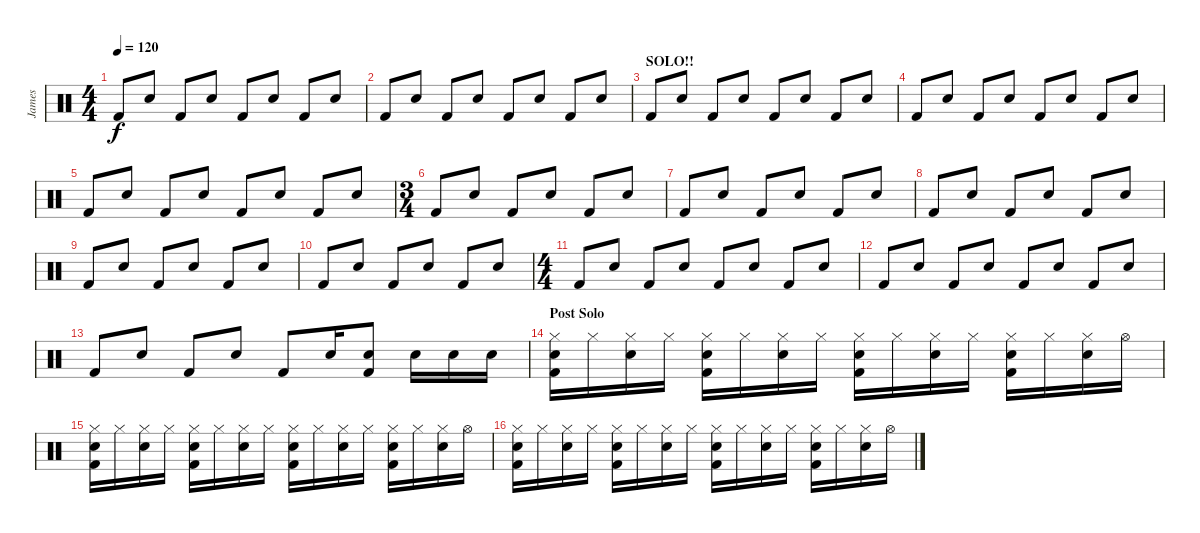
\track ("James" "James") {instrument percussion}
\staff {score}
\articulation defaults
\ts (4 4)
\tempo 120
\clef neutral
\ks c "Kick (hit) 2".8{dy f} "Snare (hit) 2".8 "Kick (hit) 2".8 "Snare (hit) 2".8 "Kick (hit) 2".8 "Snare (hit) 2".8 "Kick (hit) 2".8 "Snare (hit) 2".8
|
"Kick (hit) 2".8 "Snare (hit) 2".8 "Kick (hit) 2".8 "Snare (hit) 2".8 "Kick (hit) 2".8 "Snare (hit) 2".8 "Kick (hit) 2".8 "Snare (hit) 2".8 |
\section ("" "SOLO!!")
"Kick (hit) 2".8 "Snare (hit) 2".8 "Kick (hit) 2".8 "Snare (hit) 2".8 "Kick (hit) 2".8 "Snare (hit) 2".8 "Kick (hit) 2".8 "Snare (hit) 2".8 |
"Kick (hit) 2".8 "Snare (hit) 2".8 "Kick (hit) 2".8 "Snare (hit) 2".8 "Kick (hit) 2".8 "Snare (hit) 2".8 "Kick (hit) 2".8 "Snare (hit) 2".8 |
"Kick (hit) 2".8 "Snare (hit) 2".8 "Kick (hit) 2".8 "Snare (hit) 2".8 "Kick (hit) 2".8 "Snare (hit) 2".8 "Kick (hit) 2".8 "Snare (hit) 2".8 |
\ts (3 4)
"Kick (hit) 2".8 "Snare (hit) 2".8 "Kick (hit) 2".8 "Snare (hit) 2".8 "Kick (hit) 2".8 "Snare (hit) 2".8 |
"Kick (hit) 2".8 "Snare (hit) 2".8 "Kick (hit) 2".8 "Snare (hit) 2".8 "Kick (hit) 2".8 "Snare (hit) 2".8 |
"Kick (hit) 2".8 "Snare (hit) 2".8 "Kick (hit) 2".8 "Snare (hit) 2".8 "Kick (hit) 2".8 "Snare (hit) 2".8 |
"Kick (hit) 2".8 "Snare (hit) 2".8 "Kick (hit) 2".8 "Snare (hit) 2".8 "Kick (hit) 2".8 "Snare (hit) 2".8 |
"Kick (hit) 2".8 "Snare (hit) 2".8 "Kick (hit) 2".8 "Snare (hit) 2".8 "Kick (hit) 2".8 "Snare (hit) 2".8 |
\ts (4 4)
"Kick (hit) 2".8 "Snare (hit) 2".8 "Kick (hit) 2".8 "Snare (hit) 2".8 "Kick (hit) 2".8 "Snare (hit) 2".8 "Kick (hit) 2".8 "Snare (hit) 2".8 |
"Kick (hit) 2".8 "Snare (hit) 2".8 "Kick (hit) 2".8 "Snare (hit) 2".8 "Kick (hit) 2".8 "Snare (hit) 2".8 "Kick (hit) 2".8 "Snare (hit) 2".8 |
"Kick (hit) 2".8 "Snare (hit) 2".8 "Kick (hit) 2".8 "Snare (hit) 2".8 "Kick (hit) 2".8 "Snare (hit) 2".16 ("Snare (hit) 2" "Kick (hit) 2").8 "Snare (hit) 2".16 "Snare (hit) 2".16 "Snare (hit) 2".16 |
\section ("" "Post Solo")
("Hi-Hat (closed)" "Snare (hit) 2" "Kick (hit) 2").16 "Hi-Hat (closed)".16 ("Hi-Hat (closed)" "Snare (hit) 2").16 "Hi-Hat (closed)".16 ("Hi-Hat (closed)" "Snare (hit) 2" "Kick (hit) 2").16 "Hi-Hat (closed)".16 ("Hi-Hat (closed)" "Snare (hit) 2").16 "Hi-Hat (closed)".16 ("Hi-Hat (closed)" "Snare (hit) 2" "Kick (hit) 2").16 "Hi-Hat (closed)".16 ("Hi-Hat (closed)" "Snare (hit) 2").16 "Hi-Hat (closed)".16 ("Hi-Hat (closed)" "Snare (hit) 2" "Kick (hit) 2").16 "Hi-Hat (closed)".16 ("Hi-Hat (closed)" "Snare (hit) 2").16 "Hi-Hat (open)".16 |
("Hi-Hat (closed)" "Snare (hit) 2" "Kick (hit) 2").16 "Hi-Hat (closed)".16 ("Hi-Hat (closed)" "Snare (hit) 2").16 "Hi-Hat (closed)".16 ("Hi-Hat (closed)" "Snare (hit) 2" "Kick (hit) 2").16 "Hi-Hat (closed)".16 ("Hi-Hat (closed)" "Snare (hit) 2").16 "Hi-Hat (closed)".16 ("Hi-Hat (closed)" "Snare (hit) 2" "Kick (hit) 2").16 "Hi-Hat (closed)".16 ("Hi-Hat (closed)" "Snare (hit) 2").16 "Hi-Hat (closed)".16 ("Hi-Hat (closed)" "Snare (hit) 2" "Kick (hit) 2").16 "Hi-Hat (closed)".16 ("Hi-Hat (closed)" "Snare (hit) 2").16 "Hi-Hat (open)".16 |
("Hi-Hat (closed)" "Snare (hit) 2" "Kick (hit) 2").16 "Hi-Hat (closed)".16 ("Hi-Hat (closed)" "Snare (hit) 2").16 "Hi-Hat (closed)".16 ("Hi-Hat (closed)" "Snare (hit) 2" "Kick (hit) 2").16 "Hi-Hat (closed)".16 ("Hi-Hat (closed)" "Snare (hit) 2").16 "Hi-Hat (closed)".16 ("Hi-Hat (closed)" "Snare (hit) 2" "Kick (hit) 2").16 "Hi-Hat (closed)".16 ("Hi-Hat (closed)" "Snare (hit) 2").16 "Hi-Hat (closed)".16 ("Hi-Hat (closed)" "Snare (hit) 2" "Kick (hit) 2").16 "Hi-Hat (closed)".16 ("Hi-Hat (closed)" "Snare (hit) 2").16 "Hi-Hat (open)".16
